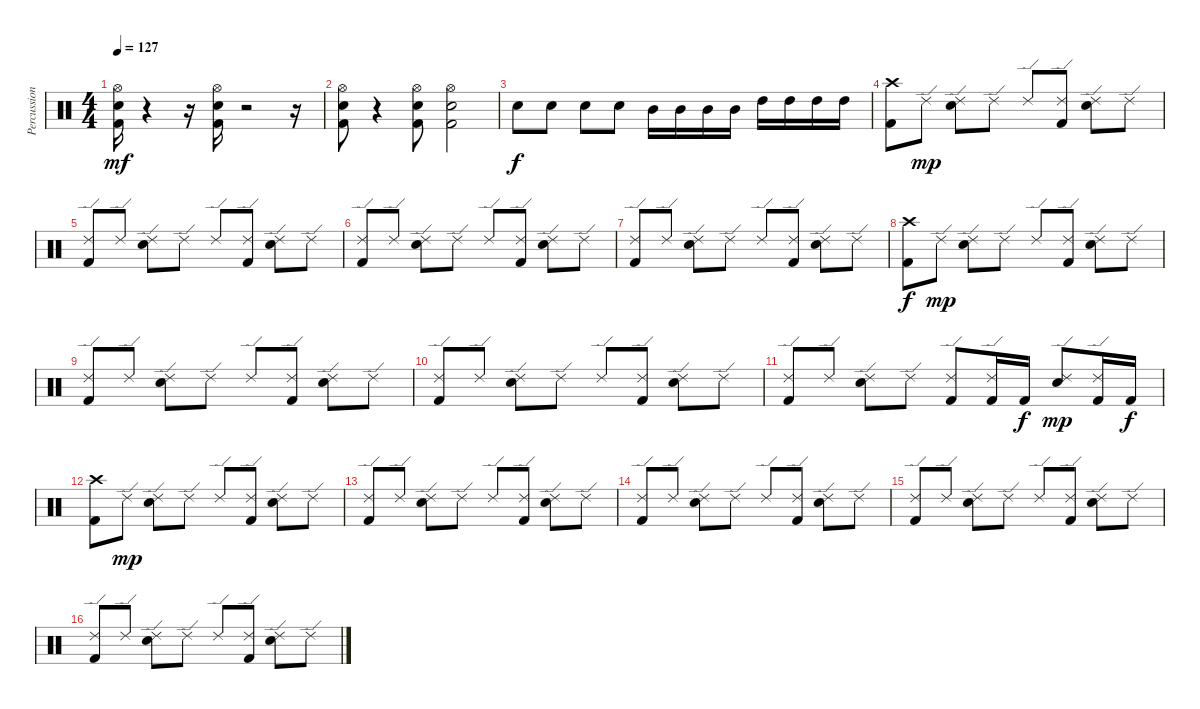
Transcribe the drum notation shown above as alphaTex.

\track ("Percussion" "Percussion") {instrument percussion}
\staff {score}
\articulation defaults
\ts (4 4)
\tempo 127
\clef neutral
\ks c
("Hi-Hat (open)" "Snare (hit) 2" "Kick (hit) 2").16{dy mf} r.4 r.16 ("Hi-Hat (open)" "Snare (hit) 2" "Kick (hit) 2").16 r.2 r.16 |
("Hi-Hat (open)" "Snare (hit) 2" "Kick (hit) 2").8 r.4 ("Hi-Hat (open)" "Snare (hit) 2" "Kick (hit) 2").8 ("Hi-Hat (open)" "Snare (hit) 2" "Kick (hit) 2").2 |
"Snare (hit) 2".8{dy f} "Snare (hit) 2".8 "Snare (hit) 2".8 "Snare (hit) 2".8 "Mid Tom (hit)".16 "Mid Tom (hit)".16 "Mid Tom (hit)".16 "Mid Tom (hit)".16 "High Tom (hit)".16 "High Tom (hit)".16 "High Tom (hit)".16 "High Tom (hit)".16 |
("Crash high (hit)" "Kick (hit) 2").8 "Ride (edge) 2".8{dy mp} ("Ride (edge) 2" "Snare (hit) 2").8 "Ride (edge) 2".8 "Ride (edge) 2".8 ("Ride (edge) 2" "Kick (hit) 2").8 ("Ride (edge) 2" "Snare (hit) 2").8 "Ride (edge) 2".8 |
("Ride (edge) 2" "Kick (hit) 2").8 "Ride (edge) 2".8 ("Ride (edge) 2" "Snare (hit) 2").8 "Ride (edge) 2".8 "Ride (edge) 2".8 ("Ride (edge) 2" "Kick (hit) 2").8 ("Ride (edge) 2" "Snare (hit) 2").8 "Ride (edge) 2".8 |
("Ride (edge) 2" "Kick (hit) 2").8 "Ride (edge) 2".8 ("Ride (edge) 2" "Snare (hit) 2").8 "Ride (edge) 2".8 "Ride (edge) 2".8 ("Ride (edge) 2" "Kick (hit) 2").8 ("Ride (edge) 2" "Snare (hit) 2").8 "Ride (edge) 2".8 |
("Ride (edge) 2" "Kick (hit) 2").8 "Ride (edge) 2".8 ("Ride (edge) 2" "Snare (hit) 2").8 "Ride (edge) 2".8 "Ride (edge) 2".8 ("Ride (edge) 2" "Kick (hit) 2").8 ("Ride (edge) 2" "Snare (hit) 2").8 "Ride (edge) 2".8 |
("Crash high (hit)" "Kick (hit) 2").8{dy f} "Ride (edge) 2".8{dy mp} ("Ride (edge) 2" "Snare (hit) 2").8 "Ride (edge) 2".8 "Ride (edge) 2".8 ("Ride (edge) 2" "Kick (hit) 2").8 ("Ride (edge) 2" "Snare (hit) 2").8 "Ride (edge) 2".8 |
("Ride (edge) 2" "Kick (hit) 2").8 "Ride (edge) 2".8 ("Ride (edge) 2" "Snare (hit) 2").8 "Ride (edge) 2".8 "Ride (edge) 2".8 ("Ride (edge) 2" "Kick (hit) 2").8 ("Ride (edge) 2" "Snare (hit) 2").8 "Ride (edge) 2".8 |
("Ride (edge) 2" "Kick (hit) 2").8 "Ride (edge) 2".8 ("Ride (edge) 2" "Snare (hit) 2").8 "Ride (edge) 2".8 "Ride (edge) 2".8 ("Ride (edge) 2" "Kick (hit) 2").8 ("Ride (edge) 2" "Snare (hit) 2").8 "Ride (edge) 2".8 |
("Ride (edge) 2" "Kick (hit) 2").8 "Ride (edge) 2".8 ("Ride (edge) 2" "Snare (hit) 2").8 "Ride (edge) 2".8 ("Ride (edge) 2" "Kick (hit) 2").8 ("Ride (edge) 2" "Kick (hit) 2").16 "Kick (hit) 2".16{dy f} ("Ride (edge) 2" "Snare (hit) 2").8{dy mp} ("Ride (edge) 2" "Kick (hit) 2").16 "Kick (hit) 2".16{dy f} |
("Crash high (hit)" "Kick (hit) 2").8 "Ride (edge) 2".8{dy mp} ("Ride (edge) 2" "Snare (hit) 2").8 "Ride (edge) 2".8 "Ride (edge) 2".8 ("Ride (edge) 2" "Kick (hit) 2").8 ("Ride (edge) 2" "Snare (hit) 2").8 "Ride (edge) 2".8 |
("Ride (edge) 2" "Kick (hit) 2").8 "Ride (edge) 2".8 ("Ride (edge) 2" "Snare (hit) 2").8 "Ride (edge) 2".8 "Ride (edge) 2".8 ("Ride (edge) 2" "Kick (hit) 2").8 ("Ride (edge) 2" "Snare (hit) 2").8 "Ride (edge) 2".8 |
("Ride (edge) 2" "Kick (hit) 2").8 "Ride (edge) 2".8 ("Ride (edge) 2" "Snare (hit) 2").8 "Ride (edge) 2".8 "Ride (edge) 2".8 ("Ride (edge) 2" "Kick (hit) 2").8 ("Ride (edge) 2" "Snare (hit) 2").8 "Ride (edge) 2".8 |
("Ride (edge) 2" "Kick (hit) 2").8 "Ride (edge) 2".8 ("Ride (edge) 2" "Snare (hit) 2").8 "Ride (edge) 2".8 "Ride (edge) 2".8 ("Ride (edge) 2" "Kick (hit) 2").8 ("Ride (edge) 2" "Snare (hit) 2").8 "Ride (edge) 2".8 |
("Ride (edge) 2" "Kick (hit) 2").8 "Ride (edge) 2".8 ("Ride (edge) 2" "Snare (hit) 2").8 "Ride (edge) 2".8 "Ride (edge) 2".8 ("Ride (edge) 2" "Kick (hit) 2").8 ("Ride (edge) 2" "Snare (hit) 2").8 "Ride (edge) 2".8
